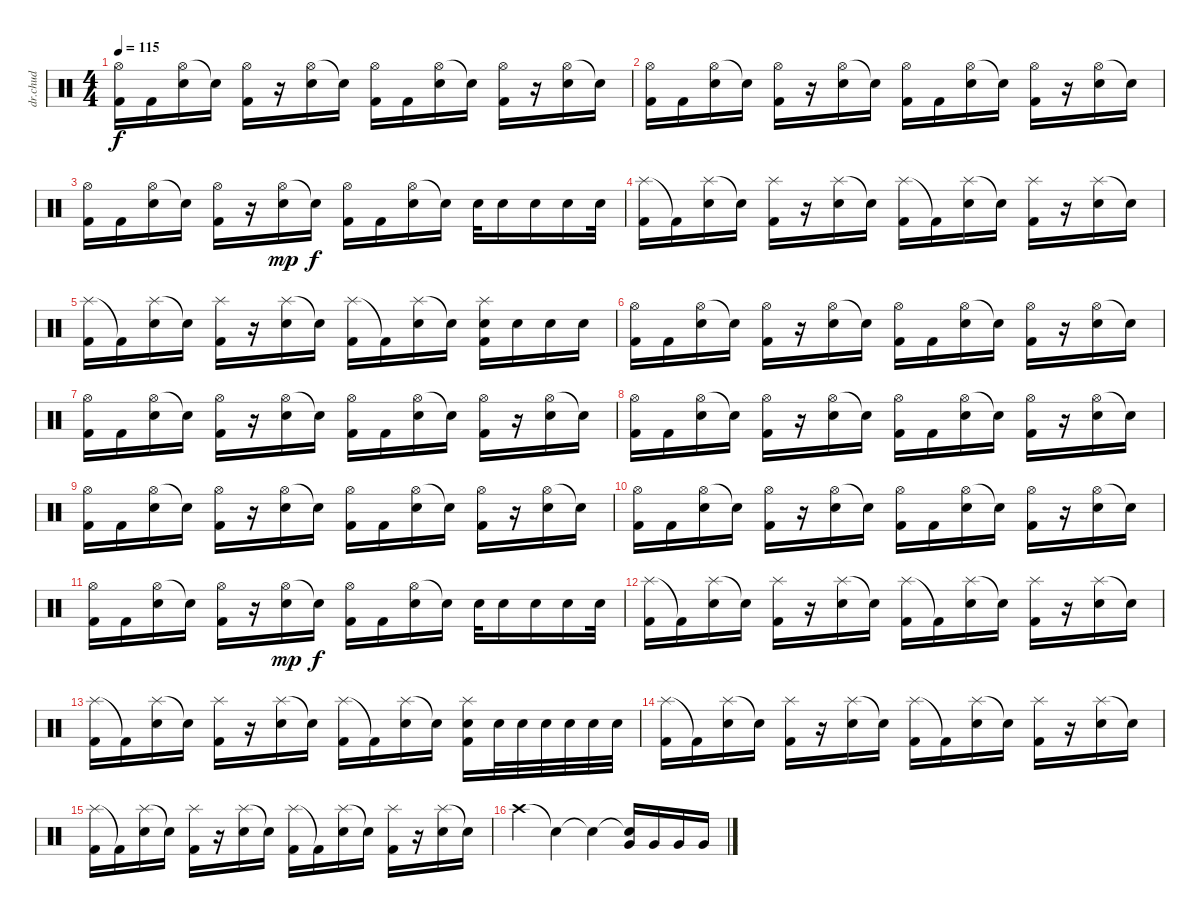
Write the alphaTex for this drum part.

\track ("dr.chud" "dr.chud") {instrument percussion}
\staff {score}
\articulation defaults
\ts (4 4)
\tempo 115
\clef neutral
\ks c
("Hi-Hat (open)" "Kick (hit) 2").16{dy f} "Kick (hit) 2".16 ("Hi-Hat (open)" "Electric Snare (hit)").16 "Snare (hit)"{t}.16 ("Hi-Hat (open)" "Kick (hit) 2").16 r.16 ("Hi-Hat (open)" "Electric Snare (hit)").16 "Electric Snare (hit)"{t}.16 ("Hi-Hat (open)" "Kick (hit) 2").16 "Kick (hit) 2".16 ("Hi-Hat (open)" "Electric Snare (hit)").16 "Snare (hit)"{t}.16 ("Hi-Hat (open)" "Kick (hit) 2").16 r.16 ("Hi-Hat (open)" "Electric Snare (hit)").16 "Snare (hit)"{t}.16 |
("Hi-Hat (open)" "Kick (hit) 2").16 "Kick (hit) 2".16 ("Hi-Hat (open)" "Electric Snare (hit)").16 "Snare (hit)"{t}.16 ("Hi-Hat (open)" "Kick (hit) 2").16 r.16 ("Hi-Hat (open)" "Electric Snare (hit)").16 "Electric Snare (hit)"{t}.16 ("Hi-Hat (open)" "Kick (hit) 2").16 "Kick (hit) 2".16 ("Hi-Hat (open)" "Electric Snare (hit)").16 "Snare (hit)"{t}.16 ("Hi-Hat (open)" "Kick (hit) 2").16 r.16 ("Hi-Hat (open)" "Electric Snare (hit)").16 "Snare (hit)"{t}.16 |
("Hi-Hat (open)" "Kick (hit) 2").16 "Kick (hit) 2".16 ("Hi-Hat (open)" "Electric Snare (hit)").16 "Snare (hit)"{t}.16 ("Hi-Hat (open)" "Kick (hit) 2").16 r.16 ("Hi-Hat (open)" "Electric Snare (hit)").16{dy mp} "Electric Snare (hit)"{t}.16{dy f} ("Hi-Hat (open)" "Kick (hit) 2").16 "Kick (hit) 2".16 ("Hi-Hat (open)" "Electric Snare (hit)").16 "Snare (hit)"{t}.16 "Electric Snare (hit)".32 "Electric Snare (hit)".16 "Electric Snare (hit)".16 "Electric Snare (hit)".16 "Electric Snare (hit)".32 |
("Splash (hit)" "Kick (hit) 2").16 "Kick (hit) 2"{t}.16 ("Splash (hit)" "Electric Snare (hit)").16 "Snare (hit)"{t}.16 ("Splash (hit)" "Kick (hit) 2").16 r.16 ("Splash (hit)" "Electric Snare (hit)").16 "Electric Snare (hit)"{t}.16 ("Splash (hit)" "Kick (hit) 2").16 "Kick (hit) 2"{t}.16 ("Splash (hit)" "Electric Snare (hit)").16 "Snare (hit)"{t}.16 ("Splash (hit)" "Kick (hit) 2").16 r.16 ("Splash (hit)" "Electric Snare (hit)").16 "Snare (hit)"{t}.16 |
("Splash (hit)" "Kick (hit) 2").16 "Kick (hit) 2"{t}.16 ("Splash (hit)" "Electric Snare (hit)").16 "Snare (hit)"{t}.16 ("Splash (hit)" "Kick (hit) 2").16 r.16 ("Splash (hit)" "Electric Snare (hit)").16 "Electric Snare (hit)"{t}.16 ("Splash (hit)" "Kick (hit) 2").16 "Kick (hit) 2"{t}.16 ("Splash (hit)" "Electric Snare (hit)").16 "Snare (hit)"{t}.16 ("Splash (hit)" "Electric Snare (hit)" "Kick (hit) 2").16 "Electric Snare (hit)".16 "Electric Snare (hit)".16 "Electric Snare (hit)".16 |
("Hi-Hat (open)" "Kick (hit) 2").16 "Kick (hit) 2".16 ("Hi-Hat (open)" "Electric Snare (hit)").16 "Snare (hit)"{t}.16 ("Hi-Hat (open)" "Kick (hit) 2").16 r.16 ("Hi-Hat (open)" "Electric Snare (hit)").16 "Electric Snare (hit)"{t}.16 ("Hi-Hat (open)" "Kick (hit) 2").16 "Kick (hit) 2".16 ("Hi-Hat (open)" "Electric Snare (hit)").16 "Snare (hit)"{t}.16 ("Hi-Hat (open)" "Kick (hit) 2").16 r.16 ("Hi-Hat (open)" "Electric Snare (hit)").16 "Snare (hit)"{t}.16 |
("Hi-Hat (open)" "Kick (hit) 2").16 "Kick (hit) 2".16 ("Hi-Hat (open)" "Electric Snare (hit)").16 "Snare (hit)"{t}.16 ("Hi-Hat (open)" "Kick (hit) 2").16 r.16 ("Hi-Hat (open)" "Electric Snare (hit)").16 "Electric Snare (hit)"{t}.16 ("Hi-Hat (open)" "Kick (hit) 2").16 "Kick (hit) 2".16 ("Hi-Hat (open)" "Electric Snare (hit)").16 "Snare (hit)"{t}.16 ("Hi-Hat (open)" "Kick (hit) 2").16 r.16 ("Hi-Hat (open)" "Electric Snare (hit)").16 "Snare (hit)"{t}.16 |
("Hi-Hat (open)" "Kick (hit) 2").16 "Kick (hit) 2".16 ("Hi-Hat (open)" "Electric Snare (hit)").16 "Snare (hit)"{t}.16 ("Hi-Hat (open)" "Kick (hit) 2").16 r.16 ("Hi-Hat (open)" "Electric Snare (hit)").16 "Electric Snare (hit)"{t}.16 ("Hi-Hat (open)" "Kick (hit) 2").16 "Kick (hit) 2".16 ("Hi-Hat (open)" "Electric Snare (hit)").16 "Snare (hit)"{t}.16 ("Hi-Hat (open)" "Kick (hit) 2").16 r.16 ("Hi-Hat (open)" "Electric Snare (hit)").16 "Snare (hit)"{t}.16 |
("Hi-Hat (open)" "Kick (hit) 2").16 "Kick (hit) 2".16 ("Hi-Hat (open)" "Electric Snare (hit)").16 "Snare (hit)"{t}.16 ("Hi-Hat (open)" "Kick (hit) 2").16 r.16 ("Hi-Hat (open)" "Electric Snare (hit)").16 "Electric Snare (hit)"{t}.16 ("Hi-Hat (open)" "Kick (hit) 2").16 "Kick (hit) 2".16 ("Hi-Hat (open)" "Electric Snare (hit)").16 "Snare (hit)"{t}.16 ("Hi-Hat (open)" "Kick (hit) 2").16 r.16 ("Hi-Hat (open)" "Electric Snare (hit)").16 "Snare (hit)"{t}.16 |
("Hi-Hat (open)" "Kick (hit) 2").16 "Kick (hit) 2".16 ("Hi-Hat (open)" "Electric Snare (hit)").16 "Snare (hit)"{t}.16 ("Hi-Hat (open)" "Kick (hit) 2").16 r.16 ("Hi-Hat (open)" "Electric Snare (hit)").16 "Electric Snare (hit)"{t}.16 ("Hi-Hat (open)" "Kick (hit) 2").16 "Kick (hit) 2".16 ("Hi-Hat (open)" "Electric Snare (hit)").16 "Snare (hit)"{t}.16 ("Hi-Hat (open)" "Kick (hit) 2").16 r.16 ("Hi-Hat (open)" "Electric Snare (hit)").16 "Snare (hit)"{t}.16 |
("Hi-Hat (open)" "Kick (hit) 2").16 "Kick (hit) 2".16 ("Hi-Hat (open)" "Electric Snare (hit)").16 "Snare (hit)"{t}.16 ("Hi-Hat (open)" "Kick (hit) 2").16 r.16 ("Hi-Hat (open)" "Electric Snare (hit)").16{dy mp} "Electric Snare (hit)"{t}.16{dy f} ("Hi-Hat (open)" "Kick (hit) 2").16 "Kick (hit) 2".16 ("Hi-Hat (open)" "Electric Snare (hit)").16 "Snare (hit)"{t}.16 "Electric Snare (hit)".32 "Electric Snare (hit)".16 "Electric Snare (hit)".16 "Electric Snare (hit)".16 "Electric Snare (hit)".32 |
("Splash (hit)" "Kick (hit) 2").16 "Kick (hit) 2"{t}.16 ("Splash (hit)" "Electric Snare (hit)").16 "Snare (hit)"{t}.16 ("Splash (hit)" "Kick (hit) 2").16 r.16 ("Splash (hit)" "Electric Snare (hit)").16 "Electric Snare (hit)"{t}.16 ("Splash (hit)" "Kick (hit) 2").16 "Kick (hit) 2"{t}.16 ("Splash (hit)" "Electric Snare (hit)").16 "Snare (hit)"{t}.16 ("Splash (hit)" "Kick (hit) 2").16 r.16 ("Splash (hit)" "Electric Snare (hit)").16 "Snare (hit)"{t}.16 |
("Splash (hit)" "Kick (hit) 2").16 "Kick (hit) 2"{t}.16 ("Splash (hit)" "Electric Snare (hit)").16 "Snare (hit)"{t}.16 ("Splash (hit)" "Kick (hit) 2").16 r.16 ("Splash (hit)" "Electric Snare (hit)").16 "Electric Snare (hit)"{t}.16 ("Splash (hit)" "Kick (hit) 2").16 "Kick (hit) 2"{t}.16 ("Splash (hit)" "Electric Snare (hit)").16 "Snare (hit)"{t}.16 ("Splash (hit)" "Electric Snare (hit)" "Kick (hit) 2").16 "Electric Snare (hit)".32 "Electric Snare (hit)".32 "Electric Snare (hit)".32 "Electric Snare (hit)".32 "Electric Snare (hit)".32 "Electric Snare (hit)".32 |
("Splash (hit)" "Kick (hit) 2").16 "Kick (hit) 2"{t}.16 ("Splash (hit)" "Electric Snare (hit)").16 "Snare (hit)"{t}.16 ("Splash (hit)" "Kick (hit) 2").16 r.16 ("Splash (hit)" "Electric Snare (hit)").16 "Electric Snare (hit)"{t}.16 ("Splash (hit)" "Kick (hit) 2").16 "Kick (hit) 2"{t}.16 ("Splash (hit)" "Electric Snare (hit)").16 "Snare (hit)"{t}.16 ("Splash (hit)" "Kick (hit) 2").16 r.16 ("Splash (hit)" "Electric Snare (hit)").16 "Snare (hit)"{t}.16 |
("Splash (hit)" "Kick (hit) 2").16 "Kick (hit) 2"{t}.16 ("Splash (hit)" "Electric Snare (hit)").16 "Snare (hit)"{t}.16 ("Splash (hit)" "Kick (hit) 2").16 r.16 ("Splash (hit)" "Electric Snare (hit)").16 "Electric Snare (hit)"{t}.16 ("Splash (hit)" "Kick (hit) 2").16 "Kick (hit) 2"{t}.16 ("Splash (hit)" "Electric Snare (hit)").16 "Snare (hit)"{t}.16 ("Splash (hit)" "Kick (hit) 2").16 r.16 ("Splash (hit)" "Electric Snare (hit)").16 "Snare (hit)"{t}.16 |
"Crash high (hit)".4 "Snare (hit)"{t}.4 "Snare (hit)"{t}.4 ("Snare (hit)"{t} "Very Low Tom (hit)").16 "Very Low Tom (hit)".16 "Very Low Tom (hit)".16 "Very Low Tom (hit)".16
